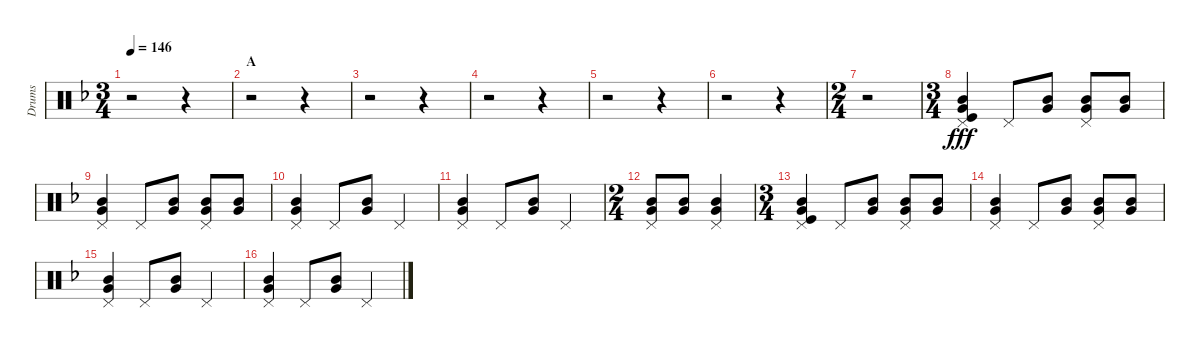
\track ("Drums" "Drums") {instrument percussion}
\staff {score}
\articulation defaults
\ts (3 4)
\tempo 146
\clef neutral
\ks f
r.2{dy fff} r.4 |
\section ("" "A")
r.2 r.4 |
r.2 r.4 |
r.2 r.4 |
r.2 r.4 |
r.2 r.4 |
\ts (2 4)
r.2 |
\ts (3 4)
("Pedal Hi-Hat (hit)" "Mid Tom (hit)" "Very Low Tom (hit)" "Kick (hit)").4 "Pedal Hi-Hat (hit)".8 ("Mid Tom (hit)" "Very Low Tom (hit)").8 ("Pedal Hi-Hat (hit)" "Mid Tom (hit)" "Very Low Tom (hit)").8 ("Mid Tom (hit)" "Very Low Tom (hit)").8 |
("Pedal Hi-Hat (hit)" "Mid Tom (hit)" "Very Low Tom (hit)").4 "Pedal Hi-Hat (hit)".8 ("Mid Tom (hit)" "Very Low Tom (hit)").8 ("Pedal Hi-Hat (hit)" "Mid Tom (hit)" "Very Low Tom (hit)").8 ("Mid Tom (hit)" "Very Low Tom (hit)").8 |
("Pedal Hi-Hat (hit)" "Mid Tom (hit)" "Very Low Tom (hit)").4 "Pedal Hi-Hat (hit)".8 ("Mid Tom (hit)" "Very Low Tom (hit)").8 "Pedal Hi-Hat (hit)".4 |
("Pedal Hi-Hat (hit)" "Mid Tom (hit)" "Very Low Tom (hit)").4 "Pedal Hi-Hat (hit)".8 ("Mid Tom (hit)" "Very Low Tom (hit)").8 "Pedal Hi-Hat (hit)".4 |
\ts (2 4)
("Pedal Hi-Hat (hit)" "Mid Tom (hit)" "Very Low Tom (hit)").8 ("Mid Tom (hit)" "Very Low Tom (hit)").8 ("Pedal Hi-Hat (hit)" "Mid Tom (hit)" "Very Low Tom (hit)").4 |
\ts (3 4)
("Pedal Hi-Hat (hit)" "Mid Tom (hit)" "Very Low Tom (hit)" "Kick (hit)").4 "Pedal Hi-Hat (hit)".8 ("Mid Tom (hit)" "Very Low Tom (hit)").8 ("Pedal Hi-Hat (hit)" "Mid Tom (hit)" "Very Low Tom (hit)").8 ("Mid Tom (hit)" "Very Low Tom (hit)").8 |
("Pedal Hi-Hat (hit)" "Mid Tom (hit)" "Very Low Tom (hit)").4 "Pedal Hi-Hat (hit)".8 ("Mid Tom (hit)" "Very Low Tom (hit)").8 ("Pedal Hi-Hat (hit)" "Mid Tom (hit)" "Very Low Tom (hit)").8 ("Mid Tom (hit)" "Very Low Tom (hit)").8 |
("Pedal Hi-Hat (hit)" "Mid Tom (hit)" "Very Low Tom (hit)").4 "Pedal Hi-Hat (hit)".8 ("Mid Tom (hit)" "Very Low Tom (hit)").8 "Pedal Hi-Hat (hit)".4 |
("Pedal Hi-Hat (hit)" "Mid Tom (hit)" "Very Low Tom (hit)").4 "Pedal Hi-Hat (hit)".8 ("Mid Tom (hit)" "Very Low Tom (hit)").8 "Pedal Hi-Hat (hit)".4
